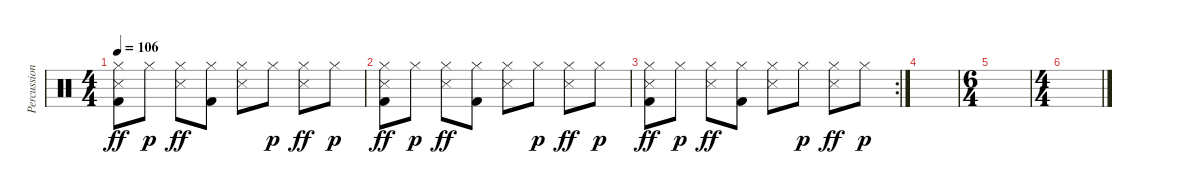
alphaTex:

\track ("Percussion" "Percussion") {instrument percussion}
\staff {score}
\articulation defaults
\ts (4 4)
\tempo 106
\clef neutral
\ks c
("Hi-Hat (closed)" "Kick (hit) 2" "Snare (side stick) 3").8{dy ff} "Hi-Hat (closed)".8{dy p} ("Hi-Hat (closed)" "Snare (side stick) 3").8{dy ff} ("Hi-Hat (closed)" "Kick (hit) 2").8 ("Hi-Hat (closed)" "Snare (side stick) 3").8 "Hi-Hat (closed)".8{dy p} ("Hi-Hat (closed)" "Snare (side stick) 3").8{dy ff} "Hi-Hat (closed)".8{dy p} |
("Hi-Hat (closed)" "Kick (hit) 2" "Snare (side stick) 3").8{dy ff} "Hi-Hat (closed)".8{dy p} ("Hi-Hat (closed)" "Snare (side stick) 3").8{dy ff} ("Hi-Hat (closed)" "Kick (hit) 2").8 ("Hi-Hat (closed)" "Snare (side stick) 3").8 "Hi-Hat (closed)".8{dy p} ("Hi-Hat (closed)" "Snare (side stick) 3").8{dy ff} "Hi-Hat (closed)".8{dy p} |
\rc 2
("Hi-Hat (closed)" "Kick (hit) 2" "Snare (side stick) 3").8{dy ff} "Hi-Hat (closed)".8{dy p} ("Hi-Hat (closed)" "Snare (side stick) 3").8{dy ff} ("Hi-Hat (closed)" "Kick (hit) 2").8 ("Hi-Hat (closed)" "Snare (side stick) 3").8 "Hi-Hat (closed)".8{dy p} ("Hi-Hat (closed)" "Snare (side stick) 3").8{dy ff} "Hi-Hat (closed)".8{dy p} |
|
\ts (6 4)
|
\ts (4 4)
